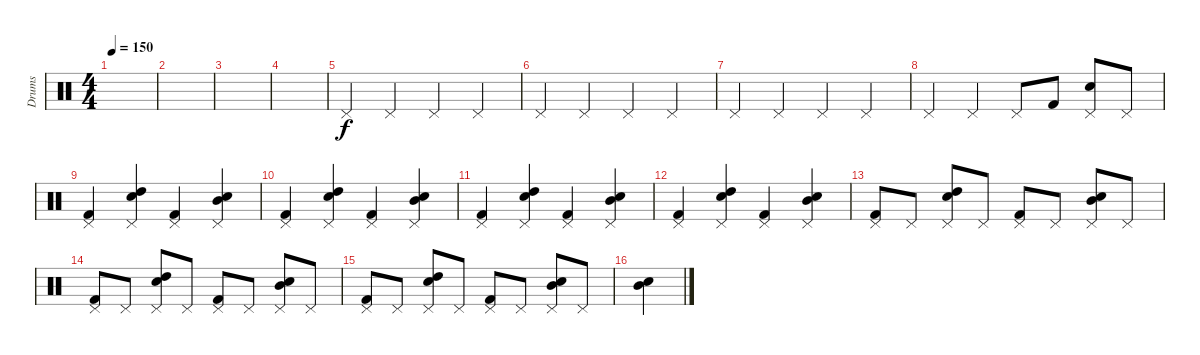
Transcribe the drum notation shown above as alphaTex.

\track ("Drums" "Drums") {instrument percussion}
\staff {score}
\articulation defaults
\ts (4 4)
\tempo 150
\clef neutral
\ks c
|
|
|
|
"Pedal Hi-Hat (hit)".4 "Pedal Hi-Hat (hit)".4 "Pedal Hi-Hat (hit)".4 "Pedal Hi-Hat (hit)".4 |
"Pedal Hi-Hat (hit)".4 "Pedal Hi-Hat (hit)".4 "Pedal Hi-Hat (hit)".4 "Pedal Hi-Hat (hit)".4 |
"Pedal Hi-Hat (hit)".4 "Pedal Hi-Hat (hit)".4 "Pedal Hi-Hat (hit)".4 "Pedal Hi-Hat (hit)".4 |
"Pedal Hi-Hat (hit)".4 "Pedal Hi-Hat (hit)".4 "Pedal Hi-Hat (hit)".8 "Kick (hit) 2".8 ("Pedal Hi-Hat (hit)" "Electric Snare (hit)").8 "Pedal Hi-Hat (hit)".8 |
("Pedal Hi-Hat (hit)" "Kick (hit) 2").4 ("Pedal Hi-Hat (hit)" "Electric Snare (hit)" "High Tom (hit)").4 ("Pedal Hi-Hat (hit)" "Kick (hit) 2").4 ("Pedal Hi-Hat (hit)" "Electric Snare (hit)" "Mid Tom (hit)").4 |
("Pedal Hi-Hat (hit)" "Kick (hit) 2").4 ("Pedal Hi-Hat (hit)" "Electric Snare (hit)" "High Tom (hit)").4 ("Pedal Hi-Hat (hit)" "Kick (hit) 2").4 ("Pedal Hi-Hat (hit)" "Electric Snare (hit)" "Mid Tom (hit)").4 |
("Pedal Hi-Hat (hit)" "Kick (hit) 2").4 ("Pedal Hi-Hat (hit)" "Electric Snare (hit)" "High Tom (hit)").4 ("Pedal Hi-Hat (hit)" "Kick (hit) 2").4 ("Pedal Hi-Hat (hit)" "Electric Snare (hit)" "Mid Tom (hit)").4 |
("Pedal Hi-Hat (hit)" "Kick (hit) 2").4 ("Pedal Hi-Hat (hit)" "Electric Snare (hit)" "High Tom (hit)").4 ("Pedal Hi-Hat (hit)" "Kick (hit) 2").4 ("Pedal Hi-Hat (hit)" "Electric Snare (hit)" "Mid Tom (hit)").4 |
("Pedal Hi-Hat (hit)" "Kick (hit) 2").8 "Pedal Hi-Hat (hit)".8 ("Pedal Hi-Hat (hit)" "Electric Snare (hit)" "High Tom (hit)").8 "Pedal Hi-Hat (hit)".8 ("Pedal Hi-Hat (hit)" "Kick (hit) 2").8 "Pedal Hi-Hat (hit)".8 ("Pedal Hi-Hat (hit)" "Electric Snare (hit)" "Mid Tom (hit)").8 "Pedal Hi-Hat (hit)".8 |
("Pedal Hi-Hat (hit)" "Kick (hit) 2").8 "Pedal Hi-Hat (hit)".8 ("Pedal Hi-Hat (hit)" "Electric Snare (hit)" "High Tom (hit)").8 "Pedal Hi-Hat (hit)".8 ("Pedal Hi-Hat (hit)" "Kick (hit) 2").8 "Pedal Hi-Hat (hit)".8 ("Pedal Hi-Hat (hit)" "Electric Snare (hit)" "Mid Tom (hit)").8 "Pedal Hi-Hat (hit)".8 |
("Pedal Hi-Hat (hit)" "Kick (hit) 2").8 "Pedal Hi-Hat (hit)".8 ("Pedal Hi-Hat (hit)" "Electric Snare (hit)" "High Tom (hit)").8 "Pedal Hi-Hat (hit)".8 ("Pedal Hi-Hat (hit)" "Kick (hit) 2").8 "Pedal Hi-Hat (hit)".8 ("Pedal Hi-Hat (hit)" "Electric Snare (hit)" "Mid Tom (hit)").8 "Pedal Hi-Hat (hit)".8 |
("Electric Snare (hit)" "Mid Tom (hit)").4
